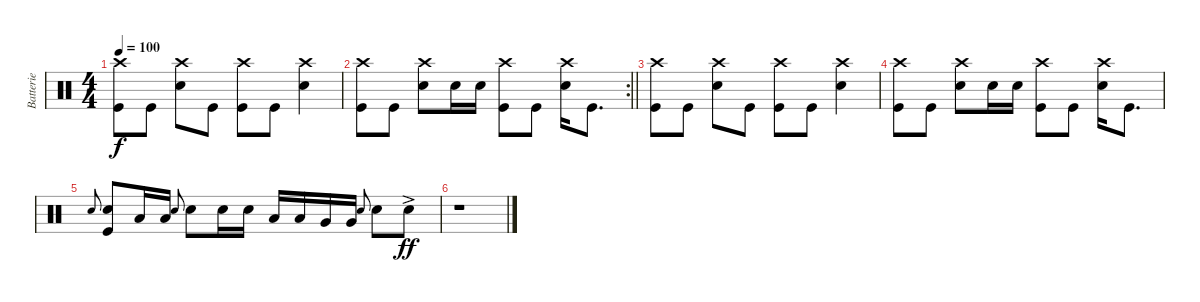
\track ("Batterie" "Batterie") {instrument percussion}
\staff {score}
\articulation defaults
\ts (4 4)
\tempo 100
\clef neutral
\ks c
("Crash high (hit)" "Kick (hit)").8{dy f} "Kick (hit)".8 ("Snare (hit) 2" "Crash high (hit)").8 "Kick (hit)".8 ("Crash high (hit)" "Kick (hit)").8 "Kick (hit)".8 ("Snare (hit) 2" "Crash high (hit)").4 |
\rc 2
\barLineRight lightlight
("Crash high (hit)" "Kick (hit)").8 "Kick (hit)".8 ("Snare (hit) 2" "Crash high (hit)").8 "Snare (hit) 2".16 "Snare (hit) 2".16 ("Crash high (hit)" "Kick (hit)").8 "Kick (hit)".8 ("Snare (hit) 2" "Crash high (hit)").16 "Kick (hit)".8{d} |
("Crash high (hit)" "Kick (hit)").8 "Kick (hit)".8 ("Snare (hit) 2" "Crash high (hit)").8 "Kick (hit)".8 ("Crash high (hit)" "Kick (hit)").8 "Kick (hit)".8 ("Snare (hit) 2" "Crash high (hit)").4 |
("Crash high (hit)" "Kick (hit)").8 "Kick (hit)".8 ("Snare (hit) 2" "Crash high (hit)").8 "Snare (hit) 2".16 "Snare (hit) 2".16 ("Crash high (hit)" "Kick (hit)").8 "Kick (hit)".8 ("Snare (hit) 2" "Crash high (hit)").16 "Kick (hit)".8{d} |
"Snare (hit) 2".8{gr onbeat} ("Snare (hit) 2" "Kick (hit)").8 "Low Tom (hit)".16 "Low Tom (hit)".16 "Snare (hit) 2".8{gr onbeat} "Snare (hit) 2".8 "Snare (hit) 2".16 "Snare (hit) 2".16 "Low Tom (hit)".16 "Low Tom (hit)".16 "Very Low Tom (hit)".16 "Very Low Tom (hit)".16 "Snare (hit) 2".8{gr onbeat} "Snare (hit) 2".8 "Snare (hit) 2"{ac}.8{dy ff} |
r.1
